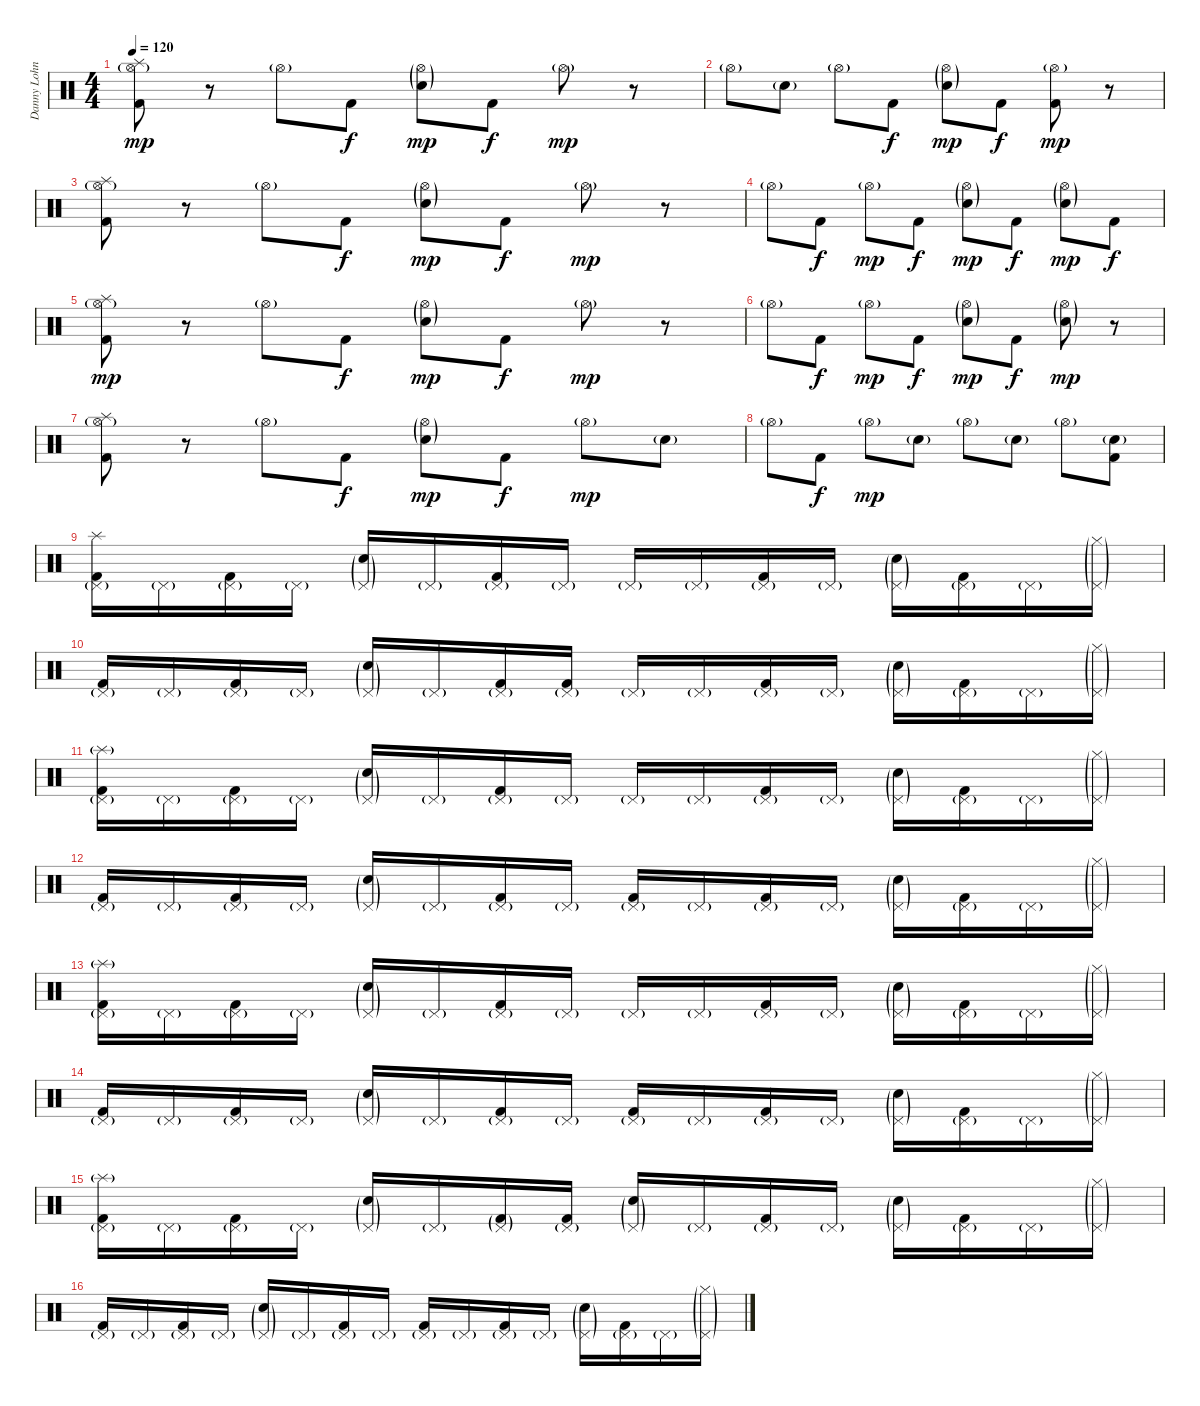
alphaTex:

\track ("Danny Lohner" "Danny Lohn") {instrument percussion}
\staff {score}
\articulation defaults
\ts (4 4)
\tempo 120
\clef neutral
\ks c
("Hi-Hat (open)"{g} "Splash (hit)" "Kick (hit) 2").8{dy mp} r.8 "Hi-Hat (open)"{g}.8 "Kick (hit) 2".8{dy f} ("Hi-Hat (open)"{g} "Electric Snare (hit)"{g}).8{dy mp} "Kick (hit) 2".8{dy f} "Hi-Hat (open)"{g}.8{dy mp} r.8 |
"Hi-Hat (open)"{g}.8 "Electric Snare (hit)"{g}.8 "Hi-Hat (open)"{g}.8 "Kick (hit) 2".8{dy f} ("Hi-Hat (open)"{g} "Electric Snare (hit)"{g}).8{dy mp} "Kick (hit) 2".8{dy f} ("Hi-Hat (open)"{g} "Kick (hit) 2").8{dy mp} r.8 |
("Hi-Hat (open)"{g} "Splash (hit)" "Kick (hit) 2").8 r.8 "Hi-Hat (open)"{g}.8 "Kick (hit) 2".8{dy f} ("Hi-Hat (open)"{g} "Electric Snare (hit)"{g}).8{dy mp} "Kick (hit) 2".8{dy f} "Hi-Hat (open)"{g}.8{dy mp} r.8 |
"Hi-Hat (open)"{g}.8 "Kick (hit) 2".8{dy f} "Hi-Hat (open)"{g}.8{dy mp} "Kick (hit) 2".8{dy f} ("Hi-Hat (open)"{g} "Electric Snare (hit)"{g}).8{dy mp} "Kick (hit) 2".8{dy f} ("Hi-Hat (open)"{g} "Electric Snare (hit)"{g}).8{dy mp} "Kick (hit) 2".8{dy f} |
("Hi-Hat (open)"{g} "Splash (hit)" "Kick (hit) 2").8{dy mp} r.8 "Hi-Hat (open)"{g}.8 "Kick (hit) 2".8{dy f} ("Hi-Hat (open)"{g} "Electric Snare (hit)"{g}).8{dy mp} "Kick (hit) 2".8{dy f} "Hi-Hat (open)"{g}.8{dy mp} r.8 |
"Hi-Hat (open)"{g}.8 "Kick (hit) 2".8{dy f} "Hi-Hat (open)"{g}.8{dy mp} "Kick (hit) 2".8{dy f} ("Hi-Hat (open)"{g} "Electric Snare (hit)"{g}).8{dy mp} "Kick (hit) 2".8{dy f} ("Hi-Hat (open)"{g} "Electric Snare (hit)"{g}).8{dy mp} r.8 |
("Hi-Hat (open)"{g} "Splash (hit)" "Kick (hit) 2").8 r.8 "Hi-Hat (open)"{g}.8 "Kick (hit) 2".8{dy f} ("Hi-Hat (open)"{g} "Electric Snare (hit)"{g}).8{dy mp} "Kick (hit) 2".8{dy f} "Hi-Hat (open)"{g}.8{dy mp} "Electric Snare (hit)"{g}.8 |
"Hi-Hat (open)"{g}.8 "Kick (hit) 2".8{dy f} "Hi-Hat (open)"{g}.8{dy mp} "Electric Snare (hit)"{g}.8 "Hi-Hat (open)"{g}.8 "Electric Snare (hit)"{g}.8 "Hi-Hat (open)"{g}.8 ("Electric Snare (hit)"{g} "Kick (hit) 2").8 |
("Pedal Hi-Hat (hit)"{g} "Splash (hit)" "Kick (hit) 2").16 "Pedal Hi-Hat (hit)"{g}.16 ("Pedal Hi-Hat (hit)"{g} "Kick (hit) 2").16 "Pedal Hi-Hat (hit)"{g}.16 ("Pedal Hi-Hat (hit)"{g} "Electric Snare (hit)"{g}).16 "Pedal Hi-Hat (hit)"{g}.16 ("Pedal Hi-Hat (hit)"{g} "Kick (hit) 2").16 "Pedal Hi-Hat (hit)"{g}.16 "Pedal Hi-Hat (hit)"{g}.16 "Pedal Hi-Hat (hit)"{g}.16 ("Pedal Hi-Hat (hit)"{g} "Kick (hit) 2").16 "Pedal Hi-Hat (hit)"{g}.16 ("Pedal Hi-Hat (hit)"{g} "Electric Snare (hit)"{g}).16 ("Pedal Hi-Hat (hit)"{g} "Kick (hit) 2").16 "Pedal Hi-Hat (hit)"{g}.16 ("Pedal Hi-Hat (hit)"{g} "Hi-Hat (closed)"{g}).16 |
("Pedal Hi-Hat (hit)"{g} "Kick (hit) 2").16 "Pedal Hi-Hat (hit)"{g}.16 ("Pedal Hi-Hat (hit)"{g} "Kick (hit) 2").16 "Pedal Hi-Hat (hit)"{g}.16 ("Pedal Hi-Hat (hit)"{g} "Electric Snare (hit)"{g}).16 "Pedal Hi-Hat (hit)"{g}.16 ("Pedal Hi-Hat (hit)"{g} "Kick (hit) 2").16 ("Pedal Hi-Hat (hit)"{g} "Kick (hit) 2").16 "Pedal Hi-Hat (hit)"{g}.16 "Pedal Hi-Hat (hit)"{g}.16 ("Pedal Hi-Hat (hit)"{g} "Kick (hit) 2").16 "Pedal Hi-Hat (hit)"{g}.16 ("Pedal Hi-Hat (hit)"{g} "Electric Snare (hit)"{g}).16 ("Pedal Hi-Hat (hit)"{g} "Kick (hit) 2").16 "Pedal Hi-Hat (hit)"{g}.16 ("Pedal Hi-Hat (hit)"{g} "Hi-Hat (closed)"{g}).16 |
("Pedal Hi-Hat (hit)"{g} "Splash (hit)"{g} "Kick (hit) 2").16 "Pedal Hi-Hat (hit)"{g}.16 ("Pedal Hi-Hat (hit)"{g} "Kick (hit) 2").16 "Pedal Hi-Hat (hit)"{g}.16 ("Pedal Hi-Hat (hit)"{g} "Electric Snare (hit)"{g}).16 "Pedal Hi-Hat (hit)"{g}.16 ("Pedal Hi-Hat (hit)"{g} "Kick (hit) 2").16 "Pedal Hi-Hat (hit)"{g}.16 "Pedal Hi-Hat (hit)"{g}.16 "Pedal Hi-Hat (hit)"{g}.16 ("Pedal Hi-Hat (hit)"{g} "Kick (hit) 2").16 "Pedal Hi-Hat (hit)"{g}.16 ("Pedal Hi-Hat (hit)"{g} "Electric Snare (hit)"{g}).16 ("Pedal Hi-Hat (hit)"{g} "Kick (hit) 2").16 "Pedal Hi-Hat (hit)"{g}.16 ("Pedal Hi-Hat (hit)"{g} "Hi-Hat (closed)"{g}).16 |
("Pedal Hi-Hat (hit)"{g} "Kick (hit) 2").16 "Pedal Hi-Hat (hit)"{g}.16 ("Pedal Hi-Hat (hit)"{g} "Kick (hit) 2").16 "Pedal Hi-Hat (hit)"{g}.16 ("Pedal Hi-Hat (hit)"{g} "Electric Snare (hit)"{g}).16 "Pedal Hi-Hat (hit)"{g}.16 ("Pedal Hi-Hat (hit)"{g} "Kick (hit) 2").16 "Pedal Hi-Hat (hit)"{g}.16 ("Pedal Hi-Hat (hit)"{g} "Kick (hit) 2").16 "Pedal Hi-Hat (hit)"{g}.16 ("Pedal Hi-Hat (hit)"{g} "Kick (hit) 2").16 "Pedal Hi-Hat (hit)"{g}.16 ("Pedal Hi-Hat (hit)"{g} "Electric Snare (hit)"{g}).16 ("Pedal Hi-Hat (hit)"{g} "Kick (hit) 2").16 "Pedal Hi-Hat (hit)"{g}.16 ("Pedal Hi-Hat (hit)"{g} "Hi-Hat (closed)"{g}).16 |
("Pedal Hi-Hat (hit)"{g} "Splash (hit)"{g} "Kick (hit) 2").16 "Pedal Hi-Hat (hit)"{g}.16 ("Pedal Hi-Hat (hit)"{g} "Kick (hit) 2").16 "Pedal Hi-Hat (hit)"{g}.16 ("Pedal Hi-Hat (hit)"{g} "Electric Snare (hit)"{g}).16 "Pedal Hi-Hat (hit)"{g}.16 ("Pedal Hi-Hat (hit)"{g} "Kick (hit) 2").16 "Pedal Hi-Hat (hit)"{g}.16 "Pedal Hi-Hat (hit)"{g}.16 "Pedal Hi-Hat (hit)"{g}.16 ("Pedal Hi-Hat (hit)"{g} "Kick (hit) 2").16 "Pedal Hi-Hat (hit)"{g}.16 ("Pedal Hi-Hat (hit)"{g} "Electric Snare (hit)"{g}).16 ("Pedal Hi-Hat (hit)"{g} "Kick (hit) 2").16 "Pedal Hi-Hat (hit)"{g}.16 ("Pedal Hi-Hat (hit)"{g} "Hi-Hat (closed)"{g}).16 |
("Pedal Hi-Hat (hit)"{g} "Kick (hit) 2").16 "Pedal Hi-Hat (hit)"{g}.16 ("Pedal Hi-Hat (hit)"{g} "Kick (hit) 2").16 "Pedal Hi-Hat (hit)"{g}.16 ("Pedal Hi-Hat (hit)"{g} "Electric Snare (hit)"{g}).16 "Pedal Hi-Hat (hit)"{g}.16 ("Pedal Hi-Hat (hit)"{g} "Kick (hit) 2").16 "Pedal Hi-Hat (hit)"{g}.16 ("Pedal Hi-Hat (hit)"{g} "Kick (hit) 2").16 "Pedal Hi-Hat (hit)"{g}.16 ("Pedal Hi-Hat (hit)"{g} "Kick (hit) 2").16 "Pedal Hi-Hat (hit)"{g}.16 ("Pedal Hi-Hat (hit)"{g} "Electric Snare (hit)"{g}).16 ("Pedal Hi-Hat (hit)"{g} "Kick (hit) 2").16 "Pedal Hi-Hat (hit)"{g}.16 ("Pedal Hi-Hat (hit)"{g} "Hi-Hat (closed)"{g}).16 |
("Pedal Hi-Hat (hit)"{g} "Splash (hit)"{g} "Kick (hit) 2").16 "Pedal Hi-Hat (hit)"{g}.16 ("Pedal Hi-Hat (hit)"{g} "Kick (hit) 2").16 "Pedal Hi-Hat (hit)"{g}.16 ("Pedal Hi-Hat (hit)"{g} "Electric Snare (hit)"{g}).16 "Pedal Hi-Hat (hit)"{g}.16 ("Pedal Hi-Hat (hit)"{g} "Kick (hit) 2"{g}).16 ("Pedal Hi-Hat (hit)"{g} "Kick (hit) 2").16 ("Pedal Hi-Hat (hit)"{g} "Electric Snare (hit)"{g}).16 "Pedal Hi-Hat (hit)"{g}.16 ("Pedal Hi-Hat (hit)"{g} "Kick (hit) 2").16 "Pedal Hi-Hat (hit)"{g}.16 ("Pedal Hi-Hat (hit)"{g} "Electric Snare (hit)"{g}).16 ("Pedal Hi-Hat (hit)"{g} "Kick (hit) 2").16 "Pedal Hi-Hat (hit)"{g}.16 ("Pedal Hi-Hat (hit)"{g} "Hi-Hat (closed)"{g}).16 |
("Pedal Hi-Hat (hit)"{g} "Kick (hit) 2").16 "Pedal Hi-Hat (hit)"{g}.16 ("Pedal Hi-Hat (hit)"{g} "Kick (hit) 2").16 "Pedal Hi-Hat (hit)"{g}.16 ("Pedal Hi-Hat (hit)"{g} "Electric Snare (hit)"{g}).16 "Pedal Hi-Hat (hit)"{g}.16 ("Pedal Hi-Hat (hit)"{g} "Kick (hit) 2").16 "Pedal Hi-Hat (hit)"{g}.16 ("Pedal Hi-Hat (hit)"{g} "Kick (hit) 2").16 "Pedal Hi-Hat (hit)"{g}.16 ("Pedal Hi-Hat (hit)"{g} "Kick (hit) 2").16 "Pedal Hi-Hat (hit)"{g}.16 ("Pedal Hi-Hat (hit)"{g} "Electric Snare (hit)"{g}).16 ("Pedal Hi-Hat (hit)"{g} "Kick (hit) 2").16 "Pedal Hi-Hat (hit)"{g}.16 ("Pedal Hi-Hat (hit)"{g} "Hi-Hat (closed)"{g}).16
